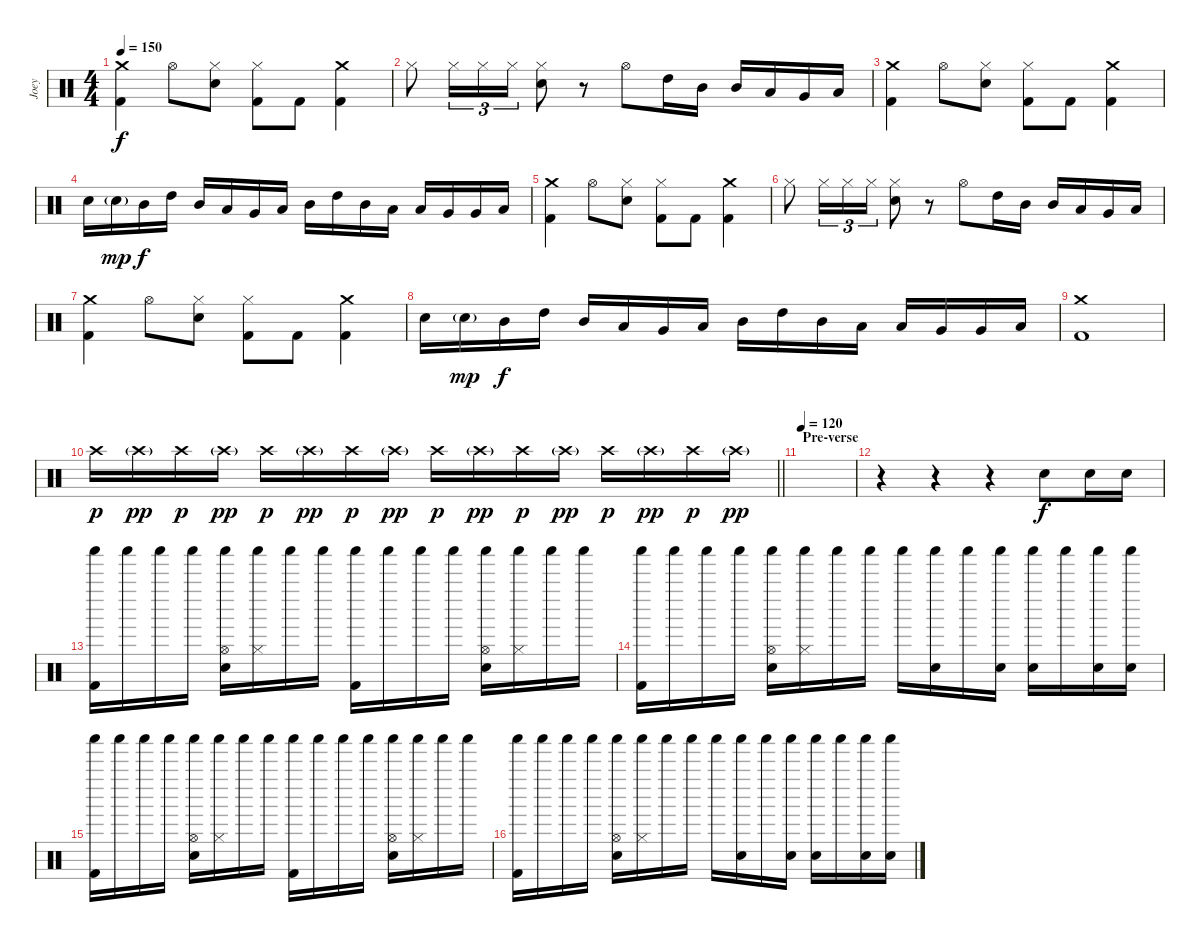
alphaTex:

\track ("Joey" "Joey") {instrument percussion}
\staff {score}
\articulation defaults
\ts (4 4)
\tempo 150
\clef neutral
\ks c
("Crash medium (hit)" "Kick (hit) 2").4{dy f} "Hi-Hat (open)".8 ("Hi-Hat (closed)" "Electric Snare (hit)").8 ("Hi-Hat (closed)" "Kick (hit) 2").8 "Kick (hit) 2".8 ("Crash medium (hit)" "Kick (hit) 2").4 |
"Hi-Hat (closed)".8 "Hi-Hat (closed)".16{tu (3 2)} "Hi-Hat (closed)".16{tu (3 2)} "Hi-Hat (closed)".16{tu (3 2)} ("Hi-Hat (closed)" "Electric Snare (hit)").8 r.8 "Hi-Hat (open)".8 "High Tom (hit)".16 "Mid Tom (hit)".16 "Mid Tom (hit)".16 "Low Tom (hit)".16 "Very Low Tom (hit)".16 "Low Floor Tom (hit)".16 |
("Crash medium (hit)" "Kick (hit) 2").4 "Hi-Hat (open)".8 ("Hi-Hat (closed)" "Electric Snare (hit)").8 ("Hi-Hat (closed)" "Kick (hit) 2").8 "Kick (hit) 2".8 ("Crash medium (hit)" "Kick (hit) 2").4 |
"Electric Snare (hit)".16 "Electric Snare (hit)"{g}.16{dy mp} "Mid Tom (hit)".16{dy f} "High Tom (hit)".16 "Mid Tom (hit)".16 "Low Tom (hit)".16 "Very Low Tom (hit)".16 "Low Floor Tom (hit)".16 "Mid Tom (hit)".16 "High Tom (hit)".16 "Mid Tom (hit)".16 "Low Tom (hit)".16 "Low Tom (hit)".16 "Very Low Tom (hit)".16 "Very Low Tom (hit)".16 "Low Floor Tom (hit)".16 |
("Crash medium (hit)" "Kick (hit) 2").4 "Hi-Hat (open)".8 ("Hi-Hat (closed)" "Electric Snare (hit)").8 ("Hi-Hat (closed)" "Kick (hit) 2").8 "Kick (hit) 2".8 ("Crash medium (hit)" "Kick (hit) 2").4 |
"Hi-Hat (closed)".8 "Hi-Hat (closed)".16{tu (3 2)} "Hi-Hat (closed)".16{tu (3 2)} "Hi-Hat (closed)".16{tu (3 2)} ("Hi-Hat (closed)" "Electric Snare (hit)").8 r.8 "Hi-Hat (open)".8 "High Tom (hit)".16 "Mid Tom (hit)".16 "Mid Tom (hit)".16 "Low Tom (hit)".16 "Very Low Tom (hit)".16 "Low Floor Tom (hit)".16 |
("Crash medium (hit)" "Kick (hit) 2").4 "Hi-Hat (open)".8 ("Hi-Hat (closed)" "Electric Snare (hit)").8 ("Hi-Hat (closed)" "Kick (hit) 2").8 "Kick (hit) 2".8 ("Crash medium (hit)" "Kick (hit) 2").4 |
"Electric Snare (hit)".16 "Electric Snare (hit)"{g}.16{dy mp} "Mid Tom (hit)".16{dy f} "High Tom (hit)".16 "Mid Tom (hit)".16 "Low Tom (hit)".16 "Very Low Tom (hit)".16 "Low Floor Tom (hit)".16 "Mid Tom (hit)".16 "High Tom (hit)".16 "Mid Tom (hit)".16 "Low Tom (hit)".16 "Low Tom (hit)".16 "Very Low Tom (hit)".16 "Very Low Tom (hit)".16 "Low Floor Tom (hit)".16 |
("Crash medium (hit)" "Kick (hit) 2").1 |
\barLineRight lightlight "Crash high (hit)".16{dy p} "Crash high (hit)"{g}.16{dy pp} "Crash high (hit)".16{dy p} "Crash high (hit)"{g}.16{dy pp} "Crash high (hit)".16{dy p} "Crash high (hit)"{g}.16{dy pp} "Crash high (hit)".16{dy p} "Crash high (hit)"{g}.16{dy pp} "Crash high (hit)".16{dy p} "Crash high (hit)"{g}.16{dy pp} "Crash high (hit)".16{dy p} "Crash high (hit)"{g}.16{dy pp} "Crash high (hit)".16{dy p} "Crash high (hit)"{g}.16{dy pp} "Crash high (hit)".16{dy p} "Crash high (hit)"{g}.16{dy pp}
|
\section ("" "Pre-verse")
\tempo 120
|
r.4 r.4 r.4 "Electric Snare (hit)".8{dy f} "Electric Snare (hit)".16 "Electric Snare (hit)".16 |
("Shaker (hit)" "Kick (hit) 2").16 "Shaker (hit)".16 "Shaker (hit)".16 "Shaker (hit)".16 ("Shaker (hit)" "Hi-Hat (open)" "Electric Snare (hit)").16 ("Shaker (hit)" "Hi-Hat (closed)").16 "Shaker (hit)".16 "Shaker (hit)".16 ("Shaker (hit)" "Kick (hit) 2").16 "Shaker (hit)".16 "Shaker (hit)".16 "Shaker (hit)".16 ("Shaker (hit)" "Hi-Hat (open)" "Electric Snare (hit)").16 ("Shaker (hit)" "Hi-Hat (closed)").16 "Shaker (hit)".16 "Shaker (hit)".16 |
("Shaker (hit)" "Kick (hit) 2").16 "Shaker (hit)".16 "Shaker (hit)".16 "Shaker (hit)".16 ("Shaker (hit)" "Hi-Hat (open)" "Electric Snare (hit)").16 ("Shaker (hit)" "Hi-Hat (closed)").16 "Shaker (hit)".16 "Shaker (hit)".16 "Shaker (hit)".16 ("Shaker (hit)" "Electric Snare (hit)").16 "Shaker (hit)".16 ("Shaker (hit)" "Electric Snare (hit)").16 ("Shaker (hit)" "Electric Snare (hit)").16 "Shaker (hit)".16 ("Shaker (hit)" "Electric Snare (hit)").16 ("Shaker (hit)" "Electric Snare (hit)").16 |
("Shaker (hit)" "Kick (hit) 2").16 "Shaker (hit)".16 "Shaker (hit)".16 "Shaker (hit)".16 ("Shaker (hit)" "Hi-Hat (open)" "Electric Snare (hit)").16 ("Shaker (hit)" "Hi-Hat (closed)").16 "Shaker (hit)".16 "Shaker (hit)".16 ("Shaker (hit)" "Kick (hit) 2").16 "Shaker (hit)".16 "Shaker (hit)".16 "Shaker (hit)".16 ("Shaker (hit)" "Hi-Hat (open)" "Electric Snare (hit)").16 ("Shaker (hit)" "Hi-Hat (closed)").16 "Shaker (hit)".16 "Shaker (hit)".16 |
("Shaker (hit)" "Kick (hit) 2").16 "Shaker (hit)".16 "Shaker (hit)".16 "Shaker (hit)".16 ("Shaker (hit)" "Hi-Hat (open)" "Electric Snare (hit)").16 ("Shaker (hit)" "Hi-Hat (closed)").16 "Shaker (hit)".16 "Shaker (hit)".16 "Shaker (hit)".16 ("Shaker (hit)" "Electric Snare (hit)").16 "Shaker (hit)".16 ("Shaker (hit)" "Electric Snare (hit)").16 ("Shaker (hit)" "Electric Snare (hit)").16 "Shaker (hit)".16 ("Shaker (hit)" "Electric Snare (hit)").16 ("Shaker (hit)" "Electric Snare (hit)").16
